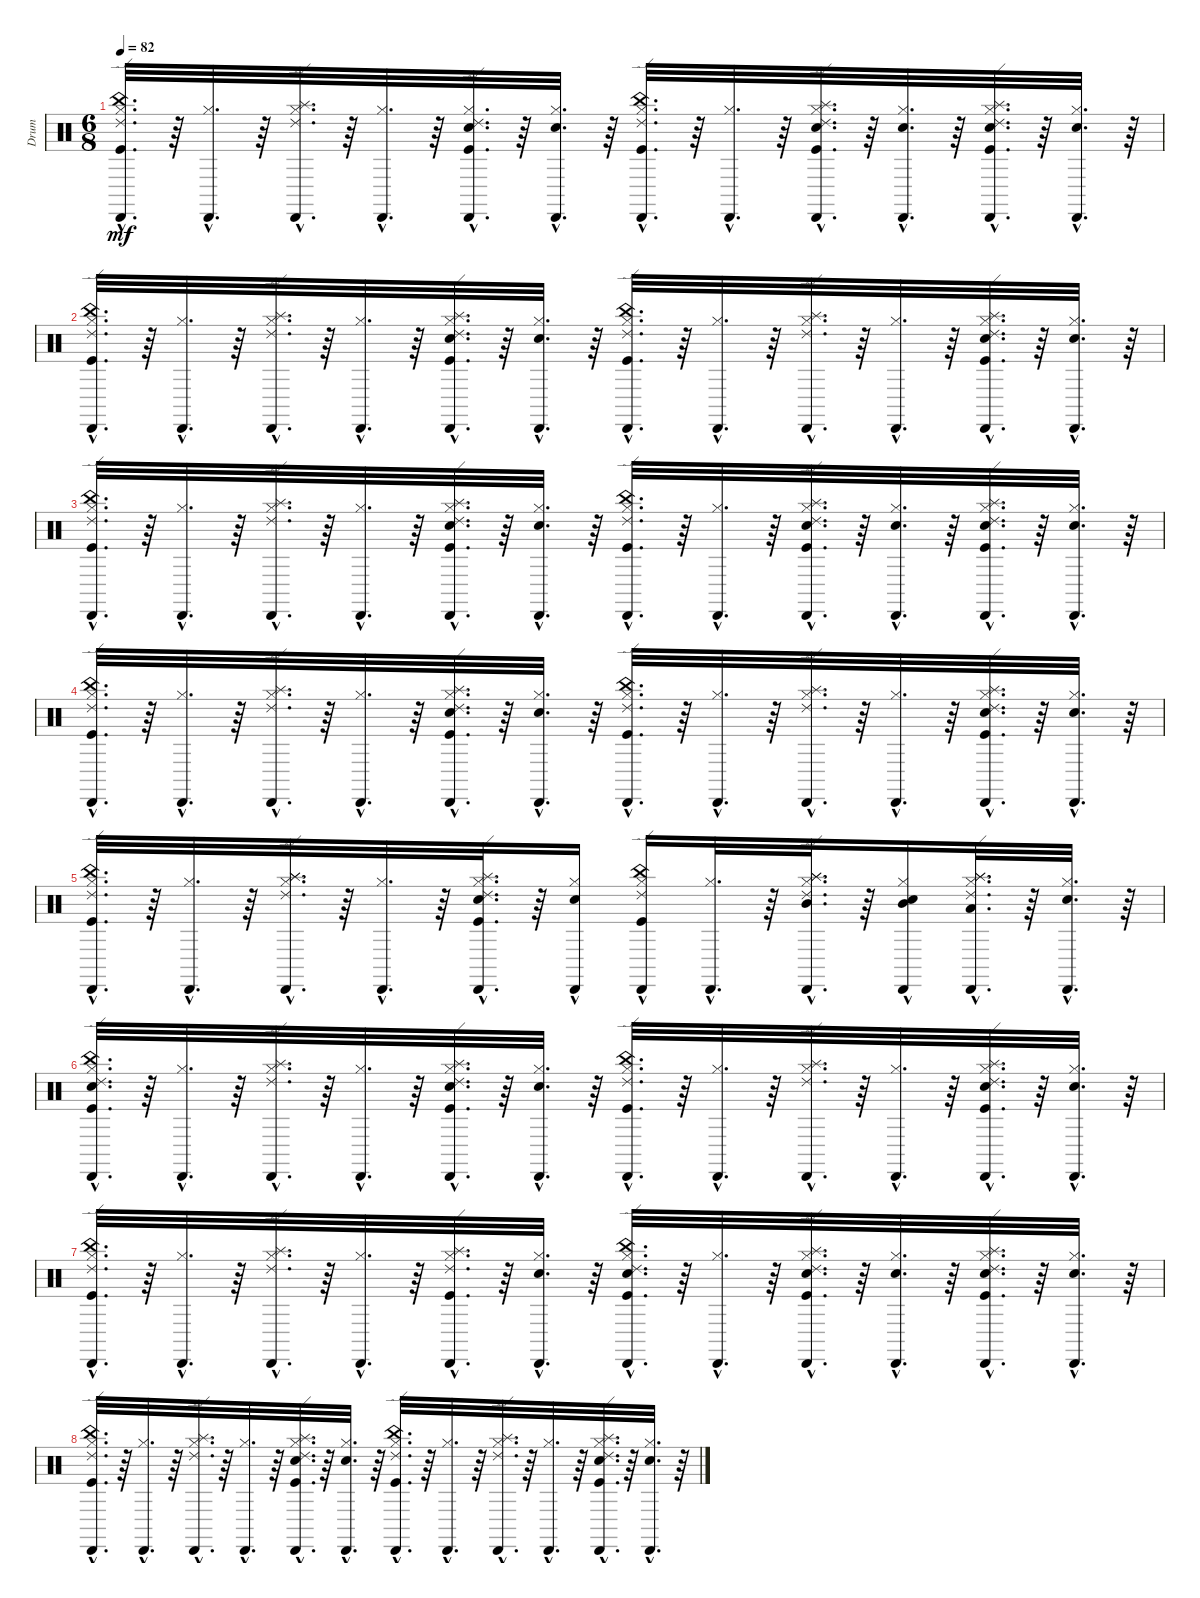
\track ("Drum" "Drum") {instrument percussion}
\staff {score}
\articulation defaults
\ts (6 8)
\tempo 82
\clef neutral
\ks c
("Cabasa (hit)"{hac} "Ride (edge) 2"{hac} "China (hit)"{hac} "Kick (hit)"{hac} "Hi-Hat (closed)"{hac}).32{d dy mf} r.64 ("Cabasa (hit)"{hac} "Hi-Hat (closed)"{hac}).32{d} r.64 ("Cabasa (hit)"{hac} "Ride (edge) 2"{hac} "Splash (hit)"{hac} "Hi-Hat (closed)"{hac}).32{d} r.64 ("Cabasa (hit)"{hac} "Hi-Hat (closed)"{hac}).32{d} r.64 ("Cabasa (hit)"{hac} "Ride (edge) 2"{hac} "Snare (hit) 2"{hac} "Hi-Hat (closed)"{hac} "Kick (hit)"{hac}).32{d} r.64 ("Cabasa (hit)"{hac} "Hi-Hat (closed)"{hac} "Snare (hit) 2"{hac}).32{d} r.64 ("Cabasa (hit)"{hac} "Ride (edge) 2"{hac} "China (hit)"{hac} "Kick (hit)"{hac} "Hi-Hat (closed)"{hac}).32{d} r.64 ("Cabasa (hit)"{hac} "Hi-Hat (closed)"{hac}).32{d} r.64 ("Cabasa (hit)"{hac} "Ride (edge) 2"{hac} "Splash (hit)"{hac} "Snare (hit) 2"{hac} "Kick (hit)"{hac} "Hi-Hat (closed)"{hac}).32{d} r.64 ("Cabasa (hit)"{hac} "Hi-Hat (closed)"{hac} "Snare (hit) 2"{hac}).32{d} r.64 ("Cabasa (hit)"{hac} "Ride (edge) 2"{hac} "Splash (hit)"{hac} "Kick (hit)"{hac} "Snare (hit) 2"{hac} "Hi-Hat (closed)"{hac}).32{d} r.64 ("Cabasa (hit)"{hac} "Hi-Hat (closed)"{hac} "Snare (hit) 2"{hac}).32{d} r.64 |
("Kick (hit)"{hac} "Hi-Hat (closed)"{hac} "China (hit)"{hac} "Ride (edge) 2"{hac} "Cabasa (hit)"{hac}).32{d} r.64 ("Hi-Hat (closed)"{hac} "Cabasa (hit)"{hac}).32{d} r.64 ("Ride (edge) 2"{hac} "Cabasa (hit)"{hac} "Hi-Hat (closed)"{hac} "Splash (hit)"{hac}).32{d} r.64 ("Cabasa (hit)"{hac} "Hi-Hat (closed)"{hac}).32{d} r.64 ("Kick (hit)"{hac} "Ride (edge) 2"{hac} "Cabasa (hit)"{hac} "Splash (hit)"{hac} "Hi-Hat (closed)"{hac} "Snare (hit) 2"{hac}).32{d} r.64 ("Cabasa (hit)"{hac} "Snare (hit) 2"{hac} "Hi-Hat (closed)"{hac}).32{d} r.64 ("Hi-Hat (closed)"{hac} "Kick (hit)"{hac} "China (hit)"{hac} "Ride (edge) 2"{hac} "Cabasa (hit)"{hac}).32{d} r.64 ("Cabasa (hit)"{hac} "Hi-Hat (closed)"{hac}).32{d} r.64 ("Hi-Hat (closed)"{hac} "Splash (hit)"{hac} "Ride (edge) 2"{hac} "Cabasa (hit)"{hac}).32{d} r.64 ("Hi-Hat (closed)"{hac} "Cabasa (hit)"{hac}).32{d} r.64 ("Hi-Hat (closed)"{hac} "Kick (hit)"{hac} "Snare (hit) 2"{hac} "Splash (hit)"{hac} "Cabasa (hit)"{hac} "Ride (edge) 2"{hac}).32{d} r.64 ("Cabasa (hit)"{hac} "Snare (hit) 2"{hac} "Hi-Hat (closed)"{hac}).32{d} r.64 |
("Cabasa (hit)"{hac} "Ride (edge) 2"{hac} "China (hit)"{hac} "Hi-Hat (closed)"{hac} "Kick (hit)"{hac}).32{d} r.64 ("Cabasa (hit)"{hac} "Hi-Hat (closed)"{hac}).32{d} r.64 ("Cabasa (hit)"{hac} "Ride (edge) 2"{hac} "Splash (hit)"{hac} "Hi-Hat (closed)"{hac}).32{d} r.64 ("Cabasa (hit)"{hac} "Hi-Hat (closed)"{hac}).32{d} r.64 ("Cabasa (hit)"{hac} "Ride (edge) 2"{hac} "Splash (hit)"{hac} "Snare (hit) 2"{hac} "Hi-Hat (closed)"{hac} "Kick (hit)"{hac}).32{d} r.64 ("Cabasa (hit)"{hac} "Snare (hit) 2"{hac} "Hi-Hat (closed)"{hac}).32{d} r.64 ("Cabasa (hit)"{hac} "Ride (edge) 2"{hac} "China (hit)"{hac} "Hi-Hat (closed)"{hac} "Kick (hit)"{hac}).32{d} r.64 ("Cabasa (hit)"{hac} "Hi-Hat (closed)"{hac}).32{d} r.64 ("Cabasa (hit)"{hac} "Ride (edge) 2"{hac} "Splash (hit)"{hac} "Hi-Hat (closed)"{hac} "Kick (hit)"{hac} "Snare (hit) 2"{hac}).32{d} r.64 ("Cabasa (hit)"{hac} "Hi-Hat (closed)"{hac} "Snare (hit) 2"{hac}).32{d} r.64 ("Cabasa (hit)"{hac} "Ride (edge) 2"{hac} "Splash (hit)"{hac} "Hi-Hat (closed)"{hac} "Snare (hit) 2"{hac} "Kick (hit)"{hac}).32{d} r.64 ("Cabasa (hit)"{hac} "Hi-Hat (closed)"{hac} "Snare (hit) 2"{hac}).32{d} r.64 |
("Ride (edge) 2"{hac} "Cabasa (hit)"{hac} "China (hit)"{hac} "Hi-Hat (closed)"{hac} "Kick (hit)"{hac}).32{d} r.64 ("Cabasa (hit)"{hac} "Hi-Hat (closed)"{hac}).32{d} r.64 ("Ride (edge) 2"{hac} "Cabasa (hit)"{hac} "Splash (hit)"{hac} "Hi-Hat (closed)"{hac}).32{d} r.64 ("Cabasa (hit)"{hac} "Hi-Hat (closed)"{hac}).32{d} r.64 ("Ride (edge) 2"{hac} "Cabasa (hit)"{hac} "Splash (hit)"{hac} "Snare (hit) 2"{hac} "Kick (hit)"{hac} "Hi-Hat (closed)"{hac}).32{d} r.64 ("Cabasa (hit)"{hac} "Snare (hit) 2"{hac} "Hi-Hat (closed)"{hac}).32{d} r.64 ("Ride (edge) 2"{hac} "Cabasa (hit)"{hac} "China (hit)"{hac} "Hi-Hat (closed)"{hac} "Kick (hit)"{hac}).32{d} r.64 ("Cabasa (hit)"{hac} "Hi-Hat (closed)"{hac}).32{d} r.64 ("Ride (edge) 2"{hac} "Cabasa (hit)"{hac} "Splash (hit)"{hac} "Hi-Hat (closed)"{hac}).32{d} r.64 ("Cabasa (hit)"{hac} "Hi-Hat (closed)"{hac}).32{d} r.64 ("Ride (edge) 2"{hac} "Cabasa (hit)"{hac} "Splash (hit)"{hac} "Snare (hit) 2"{hac} "Kick (hit)"{hac} "Hi-Hat (closed)"{hac}).32{d} r.64 ("Cabasa (hit)"{hac} "Hi-Hat (closed)"{hac} "Snare (hit) 2"{hac}).32{d} r.64 |
("Ride (edge) 2"{hac} "Cabasa (hit)"{hac} "China (hit)"{hac} "Hi-Hat (closed)"{hac} "Kick (hit)"{hac}).32{d} r.64 ("Cabasa (hit)"{hac} "Hi-Hat (closed)"{hac}).32{d} r.64 ("Splash (hit)"{hac} "Ride (edge) 2"{hac} "Cabasa (hit)"{hac} "Splash (hit)"{hac} "Hi-Hat (closed)"{hac}).32{d} r.64 ("Cabasa (hit)"{hac} "Hi-Hat (closed)"{hac}).32{d} r.64 ("Ride (edge) 2"{hac} "Cabasa (hit)"{hac} "Splash (hit)"{hac} "Snare (hit) 2"{hac} "Kick (hit)"{hac} "Hi-Hat (closed)"{hac}).32{d} r.64 ("Cabasa (hit)"{hac} "Snare (hit) 2"{hac} "Hi-Hat (closed)"{hac}).16 ("Ride (edge) 2"{hac} "Cabasa (hit)"{hac} "China (hit)"{hac} "Hi-Hat (closed)"{hac} "Kick (hit)").16 ("Cabasa (hit)"{hac} "Hi-Hat (closed)"{hac}).32{d} r.64 ("Splash (hit)"{hac} "Ride (edge) 2"{hac} "Cabasa (hit)"{hac} "Splash (hit)"{hac} "Mid Tom (hit)"{hac} "Hi-Hat (closed)"{hac}).32{d} r.64 ("Cabasa (hit)"{hac} "Mid Tom (hit)"{hac} "Snare (hit) 2"{hac} "Hi-Hat (closed)"{hac}).16 ("Splash (hit)"{hac} "Ride (edge) 2"{hac} "Cabasa (hit)"{hac} "Low Tom (hit)"{hac} "Splash (hit)"{hac} "Hi-Hat (closed)"{hac}).32{d} r.64 ("Cabasa (hit)"{hac} "Snare (hit) 2"{hac} "Hi-Hat (closed)"{hac}).32{d} r.64 |
("Cabasa (hit)"{hac} "Ride (edge) 2"{hac} "Snare (hit) 2"{hac} "China (hit)"{hac} "Hi-Hat (closed)"{hac} "Kick (hit)"{hac}).32{d} r.64 ("Cabasa (hit)"{hac} "Hi-Hat (closed)"{hac}).32{d} r.64 ("Cabasa (hit)"{hac} "Ride (edge) 2"{hac} "Splash (hit)"{hac} "Hi-Hat (closed)"{hac}).32{d} r.64 ("Cabasa (hit)"{hac} "Hi-Hat (closed)"{hac}).32{d} r.64 ("Cabasa (hit)"{hac} "Ride (edge) 2"{hac} "Splash (hit)"{hac} "Snare (hit) 2"{hac} "Hi-Hat (closed)"{hac} "Kick (hit)"{hac}).32{d} r.64 ("Cabasa (hit)"{hac} "Snare (hit) 2"{hac} "Hi-Hat (closed)"{hac}).32{d} r.64 ("Cabasa (hit)"{hac} "Ride (edge) 2"{hac} "China (hit)"{hac} "Kick (hit)"{hac} "Hi-Hat (closed)"{hac}).32{d} r.64 ("Cabasa (hit)"{hac} "Hi-Hat (closed)"{hac}).32{d} r.64 ("Cabasa (hit)"{hac} "Ride (edge) 2"{hac} "Splash (hit)"{hac} "Hi-Hat (closed)"{hac}).32{d} r.64 ("Cabasa (hit)"{hac} "Hi-Hat (closed)"{hac}).32{d} r.64 ("Cabasa (hit)"{hac} "Ride (edge) 2"{hac} "Splash (hit)"{hac} "Snare (hit) 2"{hac} "Hi-Hat (closed)"{hac} "Kick (hit)"{hac}).32{d} r.64 ("Cabasa (hit)"{hac} "Snare (hit) 2"{hac} "Hi-Hat (closed)"{hac}).32{d} r.64 |
("Ride (edge) 2"{hac} "Cabasa (hit)"{hac} "China (hit)"{hac} "Hi-Hat (closed)"{hac} "Kick (hit)"{hac}).32{d} r.64 ("Cabasa (hit)"{hac} "Hi-Hat (closed)"{hac}).32{d} r.64 ("Ride (edge) 2"{hac} "Cabasa (hit)"{hac} "Splash (hit)"{hac} "Hi-Hat (closed)"{hac}).32{d} r.64 ("Cabasa (hit)"{hac} "Hi-Hat (closed)"{hac}).32{d} r.64 ("Ride (edge) 2"{hac} "Cabasa (hit)"{hac} "Splash (hit)"{hac} "Hi-Hat (closed)"{hac} "Kick (hit)"{hac}).32{d} r.64 ("Cabasa (hit)"{hac} "Snare (hit) 2"{hac} "Hi-Hat (closed)"{hac}).32{d} r.64 ("Ride (edge) 2"{hac} "Cabasa (hit)"{hac} "China (hit)"{hac} "Hi-Hat (closed)"{hac} "Snare (hit) 2"{hac} "Kick (hit)"{hac}).32{d} r.64 ("Cabasa (hit)"{hac} "Hi-Hat (closed)"{hac}).32{d} r.64 ("Ride (edge) 2"{hac} "Cabasa (hit)"{hac} "Splash (hit)"{hac} "Hi-Hat (closed)"{hac} "Kick (hit)"{hac} "Snare (hit) 2"{hac}).32{d} r.64 ("Cabasa (hit)"{hac} "Hi-Hat (closed)"{hac} "Snare (hit) 2"{hac}).32{d} r.64 ("Ride (edge) 2"{hac} "Cabasa (hit)"{hac} "Splash (hit)"{hac} "Hi-Hat (closed)"{hac} "Snare (hit) 2"{hac} "Kick (hit)"{hac}).32{d} r.64 ("Cabasa (hit)"{hac} "Hi-Hat (closed)"{hac} "Snare (hit) 2"{hac}).32{d} r.64 |
("Cabasa (hit)"{hac} "Ride (edge) 2"{hac} "China (hit)"{hac} "Hi-Hat (closed)"{hac} "Kick (hit)"{hac}).32{d} r.64 ("Cabasa (hit)"{hac} "Hi-Hat (closed)"{hac}).32{d} r.64 ("Cabasa (hit)"{hac} "Ride (edge) 2"{hac} "Splash (hit)"{hac} "Hi-Hat (closed)"{hac}).32{d} r.64 ("Cabasa (hit)"{hac} "Hi-Hat (closed)"{hac}).32{d} r.64 ("Cabasa (hit)"{hac} "Ride (edge) 2"{hac} "Splash (hit)"{hac} "Snare (hit) 2"{hac} "Kick (hit)"{hac} "Hi-Hat (closed)"{hac}).32{d} r.64 ("Cabasa (hit)"{hac} "Snare (hit) 2"{hac} "Hi-Hat (closed)"{hac}).32{d} r.64 ("Cabasa (hit)"{hac} "Ride (edge) 2"{hac} "China (hit)"{hac} "Hi-Hat (closed)"{hac} "Kick (hit)"{hac}).32{d} r.64 ("Cabasa (hit)"{hac} "Hi-Hat (closed)"{hac}).32{d} r.64 ("Cabasa (hit)"{hac} "Ride (edge) 2"{hac} "Splash (hit)"{hac} "Hi-Hat (closed)"{hac}).32{d} r.64 ("Cabasa (hit)"{hac} "Hi-Hat (closed)"{hac}).32{d} r.64 ("Cabasa (hit)"{hac} "Ride (edge) 2"{hac} "Splash (hit)"{hac} "Snare (hit) 2"{hac} "Kick (hit)"{hac} "Hi-Hat (closed)"{hac}).32{d} r.64 ("Cabasa (hit)"{hac} "Hi-Hat (closed)"{hac} "Snare (hit) 2"{hac}).32{d} r.64
